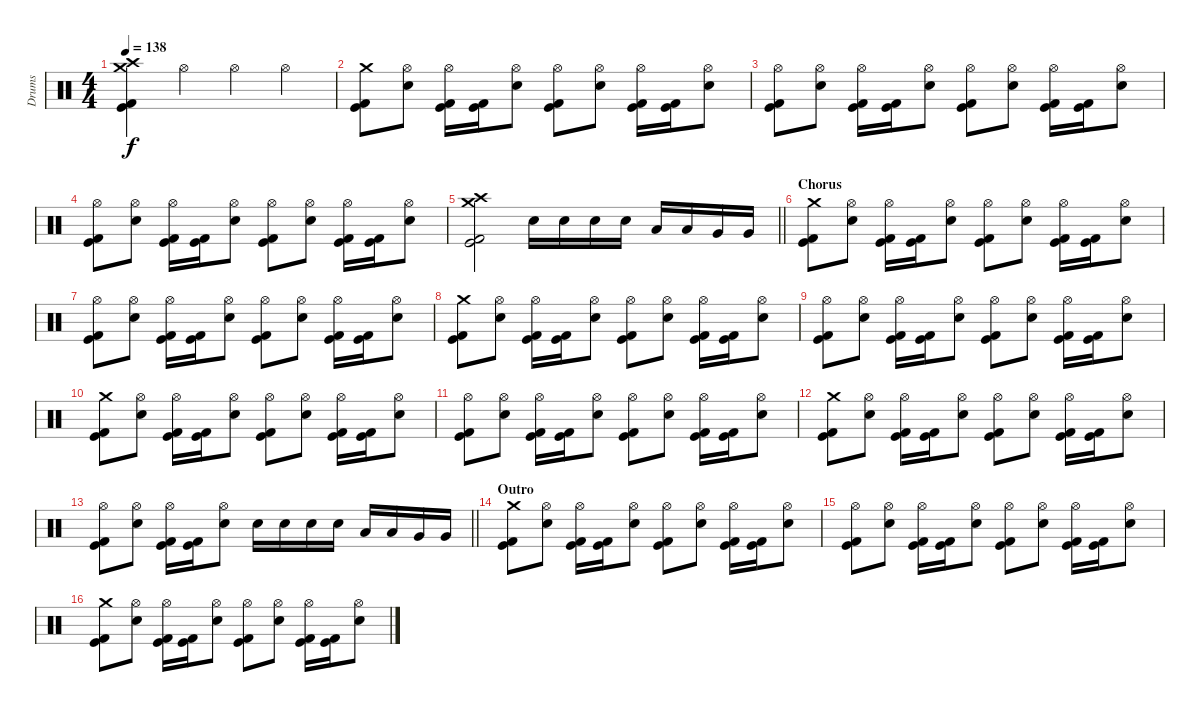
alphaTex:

\track ("Drums" "Drums") {instrument percussion}
\staff {score}
\articulation defaults
\ts (4 4)
\tempo 138
\clef neutral
\ks c
("Crash high (hit)" "Crash medium (hit)" "Kick (hit)" "Kick (hit) 2").4{dy f} "Hi-Hat (open)".4 "Hi-Hat (open)".4 "Hi-Hat (open)".4 |
("Crash medium (hit)" "Kick (hit)" "Kick (hit) 2").8 ("Hi-Hat (open)" "Electric Snare (hit)").8 ("Hi-Hat (open)" "Kick (hit)" "Kick (hit) 2").16 ("Kick (hit)" "Kick (hit) 2").16 ("Hi-Hat (open)" "Electric Snare (hit)").8 ("Hi-Hat (open)" "Kick (hit)" "Kick (hit) 2").8 ("Hi-Hat (open)" "Electric Snare (hit)").8 ("Hi-Hat (open)" "Kick (hit)" "Kick (hit) 2").16 ("Kick (hit)" "Kick (hit) 2").16 ("Hi-Hat (open)" "Electric Snare (hit)").8 |
("Hi-Hat (open)" "Kick (hit)" "Kick (hit) 2").8 ("Hi-Hat (open)" "Electric Snare (hit)").8 ("Hi-Hat (open)" "Kick (hit)" "Kick (hit) 2").16 ("Kick (hit)" "Kick (hit) 2").16 ("Hi-Hat (open)" "Electric Snare (hit)").8 ("Hi-Hat (open)" "Kick (hit)" "Kick (hit) 2").8 ("Hi-Hat (open)" "Electric Snare (hit)").8 ("Hi-Hat (open)" "Kick (hit)" "Kick (hit) 2").16 ("Kick (hit)" "Kick (hit) 2").16 ("Hi-Hat (open)" "Electric Snare (hit)").8 |
("Hi-Hat (open)" "Kick (hit)" "Kick (hit) 2").8 ("Hi-Hat (open)" "Electric Snare (hit)").8 ("Hi-Hat (open)" "Kick (hit)" "Kick (hit) 2").16 ("Kick (hit)" "Kick (hit) 2").16 ("Hi-Hat (open)" "Electric Snare (hit)").8 ("Hi-Hat (open)" "Kick (hit)" "Kick (hit) 2").8 ("Hi-Hat (open)" "Electric Snare (hit)").8 ("Hi-Hat (open)" "Kick (hit)" "Kick (hit) 2").16 ("Kick (hit)" "Kick (hit) 2").16 ("Hi-Hat (open)" "Electric Snare (hit)").8 |
\barLineRight lightlight
("Crash high (hit)" "Crash medium (hit)" "Kick (hit)" "Kick (hit) 2").2 "Electric Snare (hit)".16 "Electric Snare (hit)".16 "Electric Snare (hit)".16 "Electric Snare (hit)".16 "Low Tom (hit)".16 "Low Tom (hit)".16 "Very Low Tom (hit)".16 "Very Low Tom (hit)".16 |
\section ("" "Chorus")
("Crash medium (hit)" "Kick (hit)" "Kick (hit) 2").8 ("Hi-Hat (open)" "Electric Snare (hit)").8 ("Hi-Hat (open)" "Kick (hit)" "Kick (hit) 2").16 ("Kick (hit)" "Kick (hit) 2").16 ("Hi-Hat (open)" "Electric Snare (hit)").8 ("Hi-Hat (open)" "Kick (hit)" "Kick (hit) 2").8 ("Hi-Hat (open)" "Electric Snare (hit)").8 ("Hi-Hat (open)" "Kick (hit)" "Kick (hit) 2").16 ("Kick (hit)" "Kick (hit) 2").16 ("Hi-Hat (open)" "Electric Snare (hit)").8 |
("Hi-Hat (open)" "Kick (hit)" "Kick (hit) 2").8 ("Hi-Hat (open)" "Electric Snare (hit)").8 ("Hi-Hat (open)" "Kick (hit)" "Kick (hit) 2").16 ("Kick (hit)" "Kick (hit) 2").16 ("Hi-Hat (open)" "Electric Snare (hit)").8 ("Hi-Hat (open)" "Kick (hit)" "Kick (hit) 2").8 ("Hi-Hat (open)" "Electric Snare (hit)").8 ("Hi-Hat (open)" "Kick (hit)" "Kick (hit) 2").16 ("Kick (hit)" "Kick (hit) 2").16 ("Hi-Hat (open)" "Electric Snare (hit)").8 |
("Crash medium (hit)" "Kick (hit)" "Kick (hit) 2").8 ("Hi-Hat (open)" "Electric Snare (hit)").8 ("Hi-Hat (open)" "Kick (hit)" "Kick (hit) 2").16 ("Kick (hit)" "Kick (hit) 2").16 ("Hi-Hat (open)" "Electric Snare (hit)").8 ("Hi-Hat (open)" "Kick (hit)" "Kick (hit) 2").8 ("Hi-Hat (open)" "Electric Snare (hit)").8 ("Hi-Hat (open)" "Kick (hit)" "Kick (hit) 2").16 ("Kick (hit)" "Kick (hit) 2").16 ("Hi-Hat (open)" "Electric Snare (hit)").8 |
("Hi-Hat (open)" "Kick (hit)" "Kick (hit) 2").8 ("Hi-Hat (open)" "Electric Snare (hit)").8 ("Hi-Hat (open)" "Kick (hit)" "Kick (hit) 2").16 ("Kick (hit)" "Kick (hit) 2").16 ("Hi-Hat (open)" "Electric Snare (hit)").8 ("Hi-Hat (open)" "Kick (hit)" "Kick (hit) 2").8 ("Hi-Hat (open)" "Electric Snare (hit)").8 ("Hi-Hat (open)" "Kick (hit)" "Kick (hit) 2").16 ("Kick (hit)" "Kick (hit) 2").16 ("Hi-Hat (open)" "Electric Snare (hit)").8 |
("Crash medium (hit)" "Kick (hit)" "Kick (hit) 2").8 ("Hi-Hat (open)" "Electric Snare (hit)").8 ("Hi-Hat (open)" "Kick (hit)" "Kick (hit) 2").16 ("Kick (hit)" "Kick (hit) 2").16 ("Hi-Hat (open)" "Electric Snare (hit)").8 ("Hi-Hat (open)" "Kick (hit)" "Kick (hit) 2").8 ("Hi-Hat (open)" "Electric Snare (hit)").8 ("Hi-Hat (open)" "Kick (hit)" "Kick (hit) 2").16 ("Kick (hit)" "Kick (hit) 2").16 ("Hi-Hat (open)" "Electric Snare (hit)").8 |
("Hi-Hat (open)" "Kick (hit)" "Kick (hit) 2").8 ("Hi-Hat (open)" "Electric Snare (hit)").8 ("Hi-Hat (open)" "Kick (hit)" "Kick (hit) 2").16 ("Kick (hit)" "Kick (hit) 2").16 ("Hi-Hat (open)" "Electric Snare (hit)").8 ("Hi-Hat (open)" "Kick (hit)" "Kick (hit) 2").8 ("Hi-Hat (open)" "Electric Snare (hit)").8 ("Hi-Hat (open)" "Kick (hit)" "Kick (hit) 2").16 ("Kick (hit)" "Kick (hit) 2").16 ("Hi-Hat (open)" "Electric Snare (hit)").8 |
("Crash medium (hit)" "Kick (hit)" "Kick (hit) 2").8 ("Hi-Hat (open)" "Electric Snare (hit)").8 ("Hi-Hat (open)" "Kick (hit)" "Kick (hit) 2").16 ("Kick (hit)" "Kick (hit) 2").16 ("Hi-Hat (open)" "Electric Snare (hit)").8 ("Hi-Hat (open)" "Kick (hit)" "Kick (hit) 2").8 ("Hi-Hat (open)" "Electric Snare (hit)").8 ("Hi-Hat (open)" "Kick (hit)" "Kick (hit) 2").16 ("Kick (hit)" "Kick (hit) 2").16 ("Hi-Hat (open)" "Electric Snare (hit)").8 |
\barLineRight lightlight
("Hi-Hat (open)" "Kick (hit)" "Kick (hit) 2").8 ("Hi-Hat (open)" "Electric Snare (hit)").8 ("Hi-Hat (open)" "Kick (hit)" "Kick (hit) 2").16 ("Kick (hit)" "Kick (hit) 2").16 ("Hi-Hat (open)" "Electric Snare (hit)").8 "Electric Snare (hit)".16 "Electric Snare (hit)".16 "Electric Snare (hit)".16 "Electric Snare (hit)".16 "Low Tom (hit)".16 "Low Tom (hit)".16 "Very Low Tom (hit)".16 "Very Low Tom (hit)".16 |
\section ("" "Outro")
("Crash medium (hit)" "Kick (hit)" "Kick (hit) 2").8 ("Hi-Hat (open)" "Electric Snare (hit)").8 ("Hi-Hat (open)" "Kick (hit)" "Kick (hit) 2").16 ("Kick (hit)" "Kick (hit) 2").16 ("Hi-Hat (open)" "Electric Snare (hit)").8 ("Hi-Hat (open)" "Kick (hit)" "Kick (hit) 2").8 ("Hi-Hat (open)" "Electric Snare (hit)").8 ("Hi-Hat (open)" "Kick (hit)" "Kick (hit) 2").16 ("Kick (hit)" "Kick (hit) 2").16 ("Hi-Hat (open)" "Electric Snare (hit)").8 |
("Hi-Hat (open)" "Kick (hit)" "Kick (hit) 2").8 ("Hi-Hat (open)" "Electric Snare (hit)").8 ("Hi-Hat (open)" "Kick (hit)" "Kick (hit) 2").16 ("Kick (hit)" "Kick (hit) 2").16 ("Hi-Hat (open)" "Electric Snare (hit)").8 ("Hi-Hat (open)" "Kick (hit)" "Kick (hit) 2").8 ("Hi-Hat (open)" "Electric Snare (hit)").8 ("Hi-Hat (open)" "Kick (hit)" "Kick (hit) 2").16 ("Kick (hit)" "Kick (hit) 2").16 ("Hi-Hat (open)" "Electric Snare (hit)").8 |
("Crash medium (hit)" "Kick (hit)" "Kick (hit) 2").8 ("Hi-Hat (open)" "Electric Snare (hit)").8 ("Hi-Hat (open)" "Kick (hit)" "Kick (hit) 2").16 ("Kick (hit)" "Kick (hit) 2").16 ("Hi-Hat (open)" "Electric Snare (hit)").8 ("Hi-Hat (open)" "Kick (hit)" "Kick (hit) 2").8 ("Hi-Hat (open)" "Electric Snare (hit)").8 ("Hi-Hat (open)" "Kick (hit)" "Kick (hit) 2").16 ("Kick (hit)" "Kick (hit) 2").16 ("Hi-Hat (open)" "Electric Snare (hit)").8
